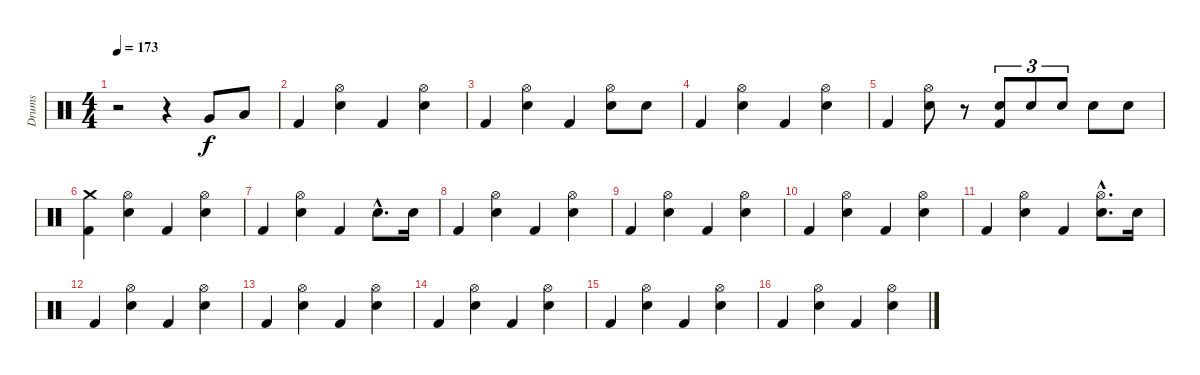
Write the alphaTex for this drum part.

\track ("Drums" "Drums") {instrument percussion}
\staff {score}
\articulation defaults
\ts (4 4)
\tempo 173
\clef neutral
\ks c
r.2{dy f} r.4 "Very Low Tom (hit)".8 "Low Floor Tom (hit)".8 |
"Kick (hit) 2".4 ("Electric Snare (hit)" "Hi-Hat (open)").4 "Kick (hit) 2".4 ("Electric Snare (hit)" "Hi-Hat (open)").4 |
"Kick (hit) 2".4 ("Electric Snare (hit)" "Hi-Hat (open)").4 "Kick (hit) 2".4 ("Electric Snare (hit)" "Hi-Hat (open)").8 "Electric Snare (hit)".8 |
"Kick (hit) 2".4 ("Electric Snare (hit)" "Hi-Hat (open)").4 "Kick (hit) 2".4 ("Electric Snare (hit)" "Hi-Hat (open)").4 |
"Kick (hit) 2".4 ("Hi-Hat (open)" "Electric Snare (hit)").8 r.8 ("Electric Snare (hit)" "Kick (hit) 2").8{tu (3 2)} "Electric Snare (hit)".8{tu (3 2)} "Electric Snare (hit)".8{tu (3 2)} "Electric Snare (hit)".8 "Electric Snare (hit)".8 |
("Kick (hit) 2" "Crash medium (hit)").4 ("Electric Snare (hit)" "Hi-Hat (open)").4 "Kick (hit) 2".4 ("Electric Snare (hit)" "Hi-Hat (open)").4 |
"Kick (hit) 2".4 ("Electric Snare (hit)" "Hi-Hat (open)").4 "Kick (hit) 2".4 "Electric Snare (hit)"{hac}.8{d} "Electric Snare (hit)".16 |
"Kick (hit) 2".4 ("Electric Snare (hit)" "Hi-Hat (open)").4 "Kick (hit) 2".4 ("Electric Snare (hit)" "Hi-Hat (open)").4 |
"Kick (hit) 2".4 ("Electric Snare (hit)" "Hi-Hat (open)").4 "Kick (hit) 2".4 ("Electric Snare (hit)" "Hi-Hat (open)").4 |
"Kick (hit) 2".4 ("Electric Snare (hit)" "Hi-Hat (open)").4 "Kick (hit) 2".4 ("Electric Snare (hit)" "Hi-Hat (open)").4 |
"Kick (hit) 2".4 ("Electric Snare (hit)" "Hi-Hat (open)").4 "Kick (hit) 2".4 ("Electric Snare (hit)"{hac} "Hi-Hat (open)"{hac}).8{d} "Electric Snare (hit)".16 |
"Kick (hit) 2".4 ("Electric Snare (hit)" "Hi-Hat (open)").4 "Kick (hit) 2".4 ("Electric Snare (hit)" "Hi-Hat (open)").4 |
"Kick (hit) 2".4 ("Electric Snare (hit)" "Hi-Hat (open)").4 "Kick (hit) 2".4 ("Electric Snare (hit)" "Hi-Hat (open)").4 |
"Kick (hit) 2".4 ("Electric Snare (hit)" "Hi-Hat (open)").4 "Kick (hit) 2".4 ("Electric Snare (hit)" "Hi-Hat (open)").4 |
"Kick (hit) 2".4 ("Electric Snare (hit)" "Hi-Hat (open)").4 "Kick (hit) 2".4 ("Electric Snare (hit)" "Hi-Hat (open)").4 |
"Kick (hit) 2".4 ("Electric Snare (hit)" "Hi-Hat (open)").4 "Kick (hit) 2".4 ("Electric Snare (hit)" "Hi-Hat (open)").4
